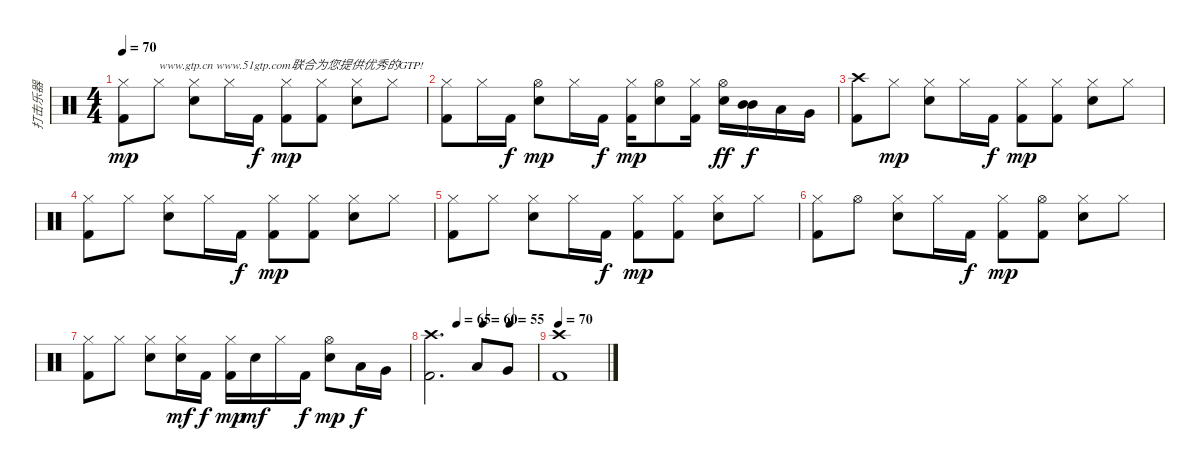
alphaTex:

\track ("打击乐器" "打击乐器") {instrument percussion}
\staff {score}
\articulation defaults
\ts (4 4)
\tempo 70
\clef neutral
\ks c
("Hi-Hat (closed)" "Kick (hit) 2").8{dy mp} "Hi-Hat (closed)".8{txt "www.gtp.cn www.51gtp.com联合为您提供优秀的GTP!"} ("Hi-Hat (closed)" "Electric Snare (hit)").8 "Hi-Hat (closed)".16 "Kick (hit) 2".16{dy f} ("Hi-Hat (closed)" "Kick (hit) 2").8{dy mp} ("Hi-Hat (closed)" "Kick (hit) 2").8 ("Hi-Hat (closed)" "Electric Snare (hit)").8 "Hi-Hat (closed)".8 |
("Hi-Hat (closed)" "Kick (hit) 2").8 "Hi-Hat (closed)".16 "Kick (hit) 2".16{dy f} ("Hi-Hat (open)" "Electric Snare (hit)").8{dy mp} "Hi-Hat (closed)".16 "Kick (hit) 2".16{dy f} ("Hi-Hat (closed)" "Kick (hit) 2").16{dy mp} ("Hi-Hat (open)" "Electric Snare (hit)").8 ("Hi-Hat (closed)" "Kick (hit) 2").16 ("Hi-Hat (open)" "Electric Snare (hit)").16{dy ff} ("Mid Tom (hit)" "Mid Tom (hit)").16{bd 60 dy f} "Low Tom (hit)".16 "Very Low Tom (hit)".16 |
("Crash high (hit)" "Kick (hit) 2").8 "Hi-Hat (closed)".8{dy mp} ("Hi-Hat (closed)" "Electric Snare (hit)").8 "Hi-Hat (closed)".16 "Kick (hit) 2".16{dy f} ("Hi-Hat (closed)" "Kick (hit) 2").8{dy mp} ("Hi-Hat (closed)" "Kick (hit) 2").8 ("Hi-Hat (closed)" "Electric Snare (hit)").8 "Hi-Hat (closed)".8 |
("Hi-Hat (closed)" "Kick (hit) 2").8 "Hi-Hat (closed)".8 ("Hi-Hat (closed)" "Electric Snare (hit)").8 "Hi-Hat (closed)".16 "Kick (hit) 2".16{dy f} ("Hi-Hat (closed)" "Kick (hit) 2").8{dy mp} ("Hi-Hat (closed)" "Kick (hit) 2").8 ("Hi-Hat (closed)" "Electric Snare (hit)").8 "Hi-Hat (closed)".8 |
("Hi-Hat (closed)" "Kick (hit) 2").8 "Hi-Hat (closed)".8 ("Hi-Hat (closed)" "Electric Snare (hit)").8 "Hi-Hat (closed)".16 "Kick (hit) 2".16{dy f} ("Hi-Hat (closed)" "Kick (hit) 2").8{dy mp} ("Hi-Hat (closed)" "Kick (hit) 2").8 ("Hi-Hat (closed)" "Electric Snare (hit)").8 "Hi-Hat (closed)".8 |
("Hi-Hat (closed)" "Kick (hit) 2").8 "Hi-Hat (open)".8 ("Hi-Hat (closed)" "Electric Snare (hit)").8 "Hi-Hat (closed)".16 "Kick (hit) 2".16{dy f} ("Hi-Hat (closed)" "Kick (hit) 2").8{dy mp} ("Hi-Hat (open)" "Kick (hit) 2").8 ("Hi-Hat (closed)" "Electric Snare (hit)").8 "Hi-Hat (closed)".8 |
("Hi-Hat (closed)" "Kick (hit) 2").8 "Hi-Hat (closed)".8 ("Hi-Hat (closed)" "Electric Snare (hit)").8 ("Hi-Hat (closed)" "Electric Snare (hit)").16{dy mf} "Kick (hit) 2".16{dy f} ("Hi-Hat (closed)" "Kick (hit) 2").16{dy mp} "Electric Snare (hit)".16{dy mf} "Hi-Hat (closed)".16 "Kick (hit) 2".16{dy f} ("Hi-Hat (open)" "Electric Snare (hit)").8{dy mp} "Low Tom (hit)".16{dy f} "Very Low Tom (hit)".16 |
\tempo (65 0.25)
\tempo (60 0.5)
\tempo (55 0.75)
("Crash high (hit)" "Kick (hit) 2").2{d} "Low Tom (hit)".8 "Very Low Tom (hit)".8 |
\tempo 70
("Crash high (hit)" "Kick (hit) 2").1
